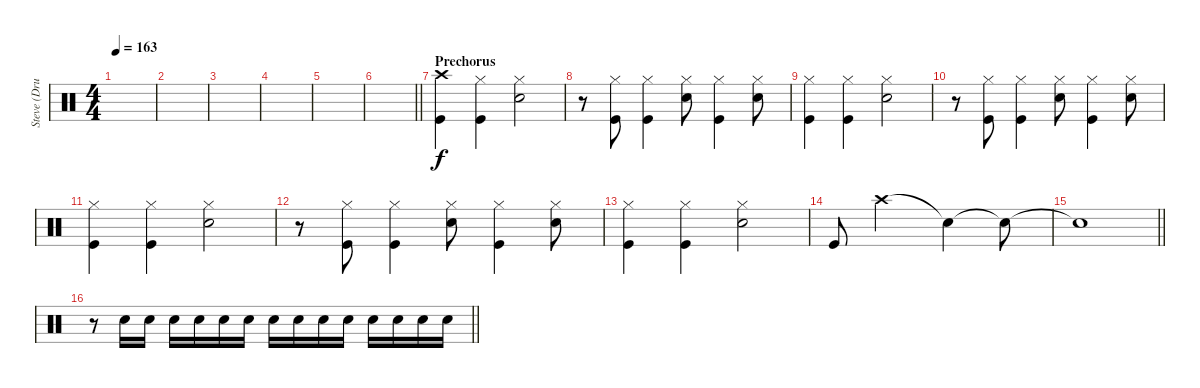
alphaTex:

\track ("Steve (Drums)" "Steve (Dru") {instrument percussion}
\staff {score}
\articulation defaults
\ts (4 4)
\tempo 163
\clef neutral
\ks c
|
|
|
|
|
\barLineRight lightlight
|
\section ("" "Prechorus")
("Crash high (hit)" "Kick (hit)").4 ("Hi-Hat (closed)" "Kick (hit)").4 ("Hi-Hat (closed)" "Electric Snare (hit)").2 |
r.8 ("Hi-Hat (closed)" "Kick (hit)").8 ("Hi-Hat (closed)" "Kick (hit)").4 ("Hi-Hat (closed)" "Electric Snare (hit)").8 ("Hi-Hat (closed)" "Kick (hit)").4 ("Hi-Hat (closed)" "Electric Snare (hit)").8 |
("Hi-Hat (closed)" "Kick (hit)").4 ("Hi-Hat (closed)" "Kick (hit)").4 ("Hi-Hat (closed)" "Electric Snare (hit)").2 |
r.8 ("Hi-Hat (closed)" "Kick (hit)").8 ("Hi-Hat (closed)" "Kick (hit)").4 ("Hi-Hat (closed)" "Electric Snare (hit)").8 ("Hi-Hat (closed)" "Kick (hit)").4 ("Hi-Hat (closed)" "Electric Snare (hit)").8 |
("Hi-Hat (closed)" "Kick (hit)").4 ("Hi-Hat (closed)" "Kick (hit)").4 ("Hi-Hat (closed)" "Electric Snare (hit)").2 |
r.8 ("Hi-Hat (closed)" "Kick (hit)").8 ("Hi-Hat (closed)" "Kick (hit)").4 ("Hi-Hat (closed)" "Electric Snare (hit)").8 ("Hi-Hat (closed)" "Kick (hit)").4 ("Hi-Hat (closed)" "Electric Snare (hit)").8 |
("Hi-Hat (closed)" "Kick (hit)").4 ("Hi-Hat (closed)" "Kick (hit)").4 ("Hi-Hat (closed)" "Electric Snare (hit)").2 |
"Kick (hit)".8 "Crash high (hit)".2 "Snare (hit)"{t}.4 "Snare (hit)"{t}.8 |
\barLineRight lightlight "Snare (hit)"{t}.1
|
\barLineRight lightlight
r.8 "Electric Snare (hit)".16 "Electric Snare (hit)".16 "Electric Snare (hit)".16 "Electric Snare (hit)".16 "Electric Snare (hit)".16 "Electric Snare (hit)".16 "Electric Snare (hit)".16 "Electric Snare (hit)".16 "Electric Snare (hit)".16 "Electric Snare (hit)".16 "Electric Snare (hit)".16 "Electric Snare (hit)".16 "Electric Snare (hit)".16 "Electric Snare (hit)".16
